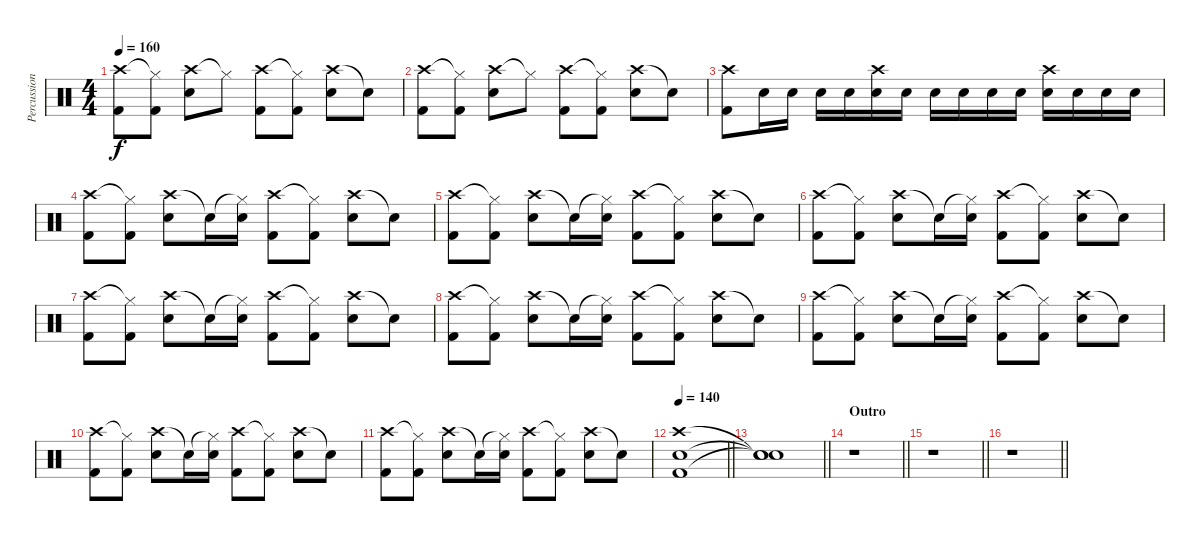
\track ("Percussions" "Percussion") {instrument percussion}
\staff {score}
\articulation defaults
\ts (4 4)
\tempo 160
\clef neutral
\ks c
("Crash high (hit)" "Kick (hit) 2").8{dy f} ("Hi-Hat (closed)"{t} "Kick (hit) 2").8 ("Crash high (hit)" "Snare (hit) 2").8 "Hi-Hat (closed)"{t}.8 ("Crash high (hit)" "Kick (hit) 2").8 ("Hi-Hat (closed)"{t} "Kick (hit) 2").8 ("Crash high (hit)" "Snare (hit) 2").8 "Snare (hit)"{t}.8 |
("Crash high (hit)" "Kick (hit) 2").8 ("Hi-Hat (closed)"{t} "Kick (hit) 2").8 ("Crash high (hit)" "Snare (hit) 2").8 "Hi-Hat (closed)"{t}.8 ("Crash high (hit)" "Kick (hit) 2").8 ("Hi-Hat (closed)"{t} "Kick (hit) 2").8 ("Crash high (hit)" "Snare (hit) 2").8 "Snare (hit)"{t}.8 |
("Crash high (hit)" "Kick (hit) 2").8 "Snare (hit) 2".16 "Snare (hit) 2".16 "Snare (hit) 2".16 "Snare (hit) 2".16 ("Crash high (hit)" "Snare (hit) 2").16 "Snare (hit) 2".16 "Snare (hit) 2".16 "Snare (hit) 2".16 "Snare (hit) 2".16 "Snare (hit) 2".16 ("Crash high (hit)" "Snare (hit) 2").16 "Snare (hit) 2".16 "Snare (hit) 2".16 "Snare (hit) 2".16 |
("Crash high (hit)" "Kick (hit) 2").8 ("Hi-Hat (closed)"{t} "Kick (hit) 2").8 ("Crash high (hit)" "Snare (hit) 2").8 "Snare (hit)"{t}.16 ("Hi-Hat (closed)"{t} "Snare (hit) 2").16 ("Crash high (hit)" "Kick (hit) 2").8 ("Hi-Hat (closed)"{t} "Kick (hit) 2").8 ("Crash high (hit)" "Snare (hit) 2").8 "Snare (hit)"{t}.8 |
("Crash high (hit)" "Kick (hit) 2").8 ("Hi-Hat (closed)"{t} "Kick (hit) 2").8 ("Crash high (hit)" "Snare (hit) 2").8 "Snare (hit)"{t}.16 ("Hi-Hat (closed)"{t} "Snare (hit) 2").16 ("Crash high (hit)" "Kick (hit) 2").8 ("Hi-Hat (closed)"{t} "Kick (hit) 2").8 ("Crash high (hit)" "Snare (hit) 2").8 "Snare (hit)"{t}.8 |
("Crash high (hit)" "Kick (hit) 2").8 ("Hi-Hat (closed)"{t} "Kick (hit) 2").8 ("Crash high (hit)" "Snare (hit) 2").8 "Snare (hit)"{t}.16 ("Hi-Hat (closed)"{t} "Snare (hit) 2").16 ("Crash high (hit)" "Kick (hit) 2").8 ("Hi-Hat (closed)"{t} "Kick (hit) 2").8 ("Crash high (hit)" "Snare (hit) 2").8 "Snare (hit)"{t}.8 |
("Crash high (hit)" "Kick (hit) 2").8 ("Hi-Hat (closed)"{t} "Kick (hit) 2").8 ("Crash high (hit)" "Snare (hit) 2").8 "Snare (hit)"{t}.16 ("Hi-Hat (closed)"{t} "Snare (hit) 2").16 ("Crash high (hit)" "Kick (hit) 2").8 ("Hi-Hat (closed)"{t} "Kick (hit) 2").8 ("Crash high (hit)" "Snare (hit) 2").8 "Snare (hit)"{t}.8 |
("Crash high (hit)" "Kick (hit) 2").8 ("Hi-Hat (closed)"{t} "Kick (hit) 2").8 ("Crash high (hit)" "Snare (hit) 2").8 "Snare (hit)"{t}.16 ("Hi-Hat (closed)"{t} "Snare (hit) 2").16 ("Crash high (hit)" "Kick (hit) 2").8 ("Hi-Hat (closed)"{t} "Kick (hit) 2").8 ("Crash high (hit)" "Snare (hit) 2").8 "Snare (hit)"{t}.8 |
("Crash high (hit)" "Kick (hit) 2").8 ("Hi-Hat (closed)"{t} "Kick (hit) 2").8 ("Crash high (hit)" "Snare (hit) 2").8 "Snare (hit)"{t}.16 ("Hi-Hat (closed)"{t} "Snare (hit) 2").16 ("Crash high (hit)" "Kick (hit) 2").8 ("Hi-Hat (closed)"{t} "Kick (hit) 2").8 ("Crash high (hit)" "Snare (hit) 2").8 "Snare (hit)"{t}.8 |
("Crash high (hit)" "Kick (hit) 2").8 ("Hi-Hat (closed)"{t} "Kick (hit) 2").8 ("Crash high (hit)" "Snare (hit) 2").8 "Snare (hit)"{t}.16 ("Hi-Hat (closed)"{t} "Snare (hit) 2").16 ("Crash high (hit)" "Kick (hit) 2").8 ("Hi-Hat (closed)"{t} "Kick (hit) 2").8 ("Crash high (hit)" "Snare (hit) 2").8 "Snare (hit)"{t}.8 |
("Crash high (hit)" "Kick (hit) 2").8 ("Hi-Hat (closed)"{t} "Kick (hit) 2").8 ("Crash high (hit)" "Snare (hit) 2").8 "Snare (hit)"{t}.16 ("Hi-Hat (closed)"{t} "Snare (hit) 2").16 ("Crash high (hit)" "Kick (hit) 2").8 ("Hi-Hat (closed)"{t} "Kick (hit) 2").8 ("Crash high (hit)" "Snare (hit) 2").8 "Snare (hit)"{t}.8 |
\tempo 140
\barLineRight lightlight
("Crash high (hit)" "Snare (hit) 2" "Kick (hit) 2").1 |
\barLineRight lightlight
("Snare (hit)"{t} "Snare (hit)"{t} "Snare (hit)"{t}).1 |
\section ("" "Outro")
\barLineRight lightlight
r.1 |
\barLineRight lightlight
r.1 |
\barLineRight lightlight
r.1
